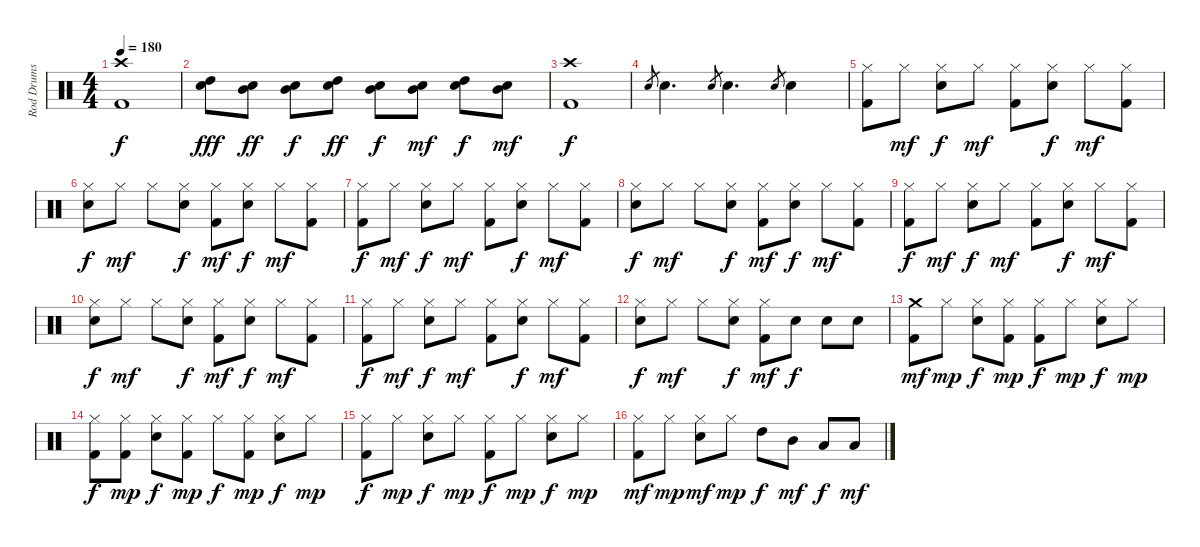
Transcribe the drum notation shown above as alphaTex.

\track ("Rod Drums" "Rod Drums") {instrument percussion}
\staff {score}
\articulation defaults
\ts (4 4)
\tempo 180
\clef neutral
\ks c
("Crash high (hit)" "Kick (hit) 2").1{dy f} |
("Snare (hit) 2" "High Tom (hit)").8{dy fff} ("Snare (hit) 2" "Mid Tom (hit)").8{dy ff} ("Snare (hit) 2" "Mid Tom (hit)").8{dy f} ("Snare (hit) 2" "High Tom (hit)").8{dy ff} ("Snare (hit) 2" "Mid Tom (hit)").8{dy f} ("Snare (hit) 2" "Mid Tom (hit)").8{dy mf} ("Snare (hit) 2" "High Tom (hit)").8{dy f} ("Snare (hit) 2" "Mid Tom (hit)").8{dy mf} |
("Crash high (hit)" "Kick (hit) 2").1{dy f} |
"Snare (hit) 2".8{gr} "Snare (hit) 2".4{d} "Snare (hit) 2".8{gr} "Snare (hit) 2".4{d} "Snare (hit) 2".8{gr} "Snare (hit) 2".4 |
("Hi-Hat (closed)" "Kick (hit) 2").8 "Hi-Hat (closed)".8{dy mf} ("Hi-Hat (closed)" "Snare (hit) 2").8{dy f} "Hi-Hat (closed)".8{dy mf} ("Hi-Hat (closed)" "Kick (hit) 2").8 ("Hi-Hat (closed)" "Snare (hit) 2").8{dy f} "Hi-Hat (closed)".8{dy mf} ("Hi-Hat (closed)" "Kick (hit) 2").8 |
("Hi-Hat (closed)" "Snare (hit) 2").8{dy f} "Hi-Hat (closed)".8{dy mf} "Hi-Hat (closed)".8 ("Hi-Hat (closed)" "Snare (hit) 2").8{dy f} ("Hi-Hat (closed)" "Kick (hit) 2").8{dy mf} ("Hi-Hat (closed)" "Snare (hit) 2").8{dy f} "Hi-Hat (closed)".8{dy mf} ("Hi-Hat (closed)" "Kick (hit) 2").8 |
("Hi-Hat (closed)" "Kick (hit) 2").8{dy f} "Hi-Hat (closed)".8{dy mf} ("Hi-Hat (closed)" "Snare (hit) 2").8{dy f} "Hi-Hat (closed)".8{dy mf} ("Hi-Hat (closed)" "Kick (hit) 2").8 ("Hi-Hat (closed)" "Snare (hit) 2").8{dy f} "Hi-Hat (closed)".8{dy mf} ("Hi-Hat (closed)" "Kick (hit) 2").8 |
("Hi-Hat (closed)" "Snare (hit) 2").8{dy f} "Hi-Hat (closed)".8{dy mf} "Hi-Hat (closed)".8 ("Hi-Hat (closed)" "Snare (hit) 2").8{dy f} ("Hi-Hat (closed)" "Kick (hit) 2").8{dy mf} ("Hi-Hat (closed)" "Snare (hit) 2").8{dy f} "Hi-Hat (closed)".8{dy mf} ("Hi-Hat (closed)" "Kick (hit) 2").8 |
("Hi-Hat (closed)" "Kick (hit) 2").8{dy f} "Hi-Hat (closed)".8{dy mf} ("Hi-Hat (closed)" "Snare (hit) 2").8{dy f} "Hi-Hat (closed)".8{dy mf} ("Hi-Hat (closed)" "Kick (hit) 2").8 ("Hi-Hat (closed)" "Snare (hit) 2").8{dy f} "Hi-Hat (closed)".8{dy mf} ("Hi-Hat (closed)" "Kick (hit) 2").8 |
("Hi-Hat (closed)" "Snare (hit) 2").8{dy f} "Hi-Hat (closed)".8{dy mf} "Hi-Hat (closed)".8 ("Hi-Hat (closed)" "Snare (hit) 2").8{dy f} ("Hi-Hat (closed)" "Kick (hit) 2").8{dy mf} ("Hi-Hat (closed)" "Snare (hit) 2").8{dy f} "Hi-Hat (closed)".8{dy mf} ("Hi-Hat (closed)" "Kick (hit) 2").8 |
("Hi-Hat (closed)" "Kick (hit) 2").8{dy f} "Hi-Hat (closed)".8{dy mf} ("Hi-Hat (closed)" "Snare (hit) 2").8{dy f} "Hi-Hat (closed)".8{dy mf} ("Hi-Hat (closed)" "Kick (hit) 2").8 ("Hi-Hat (closed)" "Snare (hit) 2").8{dy f} "Hi-Hat (closed)".8{dy mf} ("Hi-Hat (closed)" "Kick (hit) 2").8 |
("Hi-Hat (closed)" "Snare (hit) 2").8{dy f} "Hi-Hat (closed)".8{dy mf} "Hi-Hat (closed)".8 ("Hi-Hat (closed)" "Snare (hit) 2").8{dy f} ("Hi-Hat (closed)" "Kick (hit) 2").8{dy mf} "Snare (hit) 2".8{dy f} "Snare (hit) 2".8 "Snare (hit) 2".8 |
("Crash medium (hit)" "Kick (hit) 2").8{dy mf} "Hi-Hat (closed)".8{dy mp} ("Hi-Hat (closed)" "Snare (hit) 2").8{dy f} ("Hi-Hat (closed)" "Kick (hit) 2").8{dy mp} ("Hi-Hat (closed)" "Kick (hit) 2").8{dy f} "Hi-Hat (closed)".8{dy mp} ("Hi-Hat (closed)" "Snare (hit) 2").8{dy f} "Hi-Hat (closed)".8{dy mp} |
("Hi-Hat (closed)" "Kick (hit) 2").8{dy f} ("Hi-Hat (closed)" "Kick (hit) 2").8{dy mp} ("Hi-Hat (closed)" "Snare (hit) 2").8{dy f} ("Hi-Hat (closed)" "Kick (hit) 2").8{dy mp} "Hi-Hat (closed)".8{dy f} ("Hi-Hat (closed)" "Kick (hit) 2").8{dy mp} ("Hi-Hat (closed)" "Snare (hit) 2").8{dy f} "Hi-Hat (closed)".8{dy mp} |
("Hi-Hat (closed)" "Kick (hit) 2").8{dy f} "Hi-Hat (closed)".8{dy mp} ("Hi-Hat (closed)" "Snare (hit) 2").8{dy f} "Hi-Hat (closed)".8{dy mp} ("Hi-Hat (closed)" "Kick (hit) 2").8{dy f} "Hi-Hat (closed)".8{dy mp} ("Hi-Hat (closed)" "Snare (hit) 2").8{dy f} "Hi-Hat (closed)".8{dy mp} |
("Hi-Hat (closed)" "Kick (hit) 2").8{dy mf} "Hi-Hat (closed)".8{dy mp} ("Hi-Hat (closed)" "Snare (hit) 2").8{dy mf} "Hi-Hat (closed)".8{dy mp} "High Tom (hit)".8{dy f} "Mid Tom (hit)".8{dy mf} "Low Tom (hit)".8{dy f} "Low Tom (hit)".8{dy mf}
